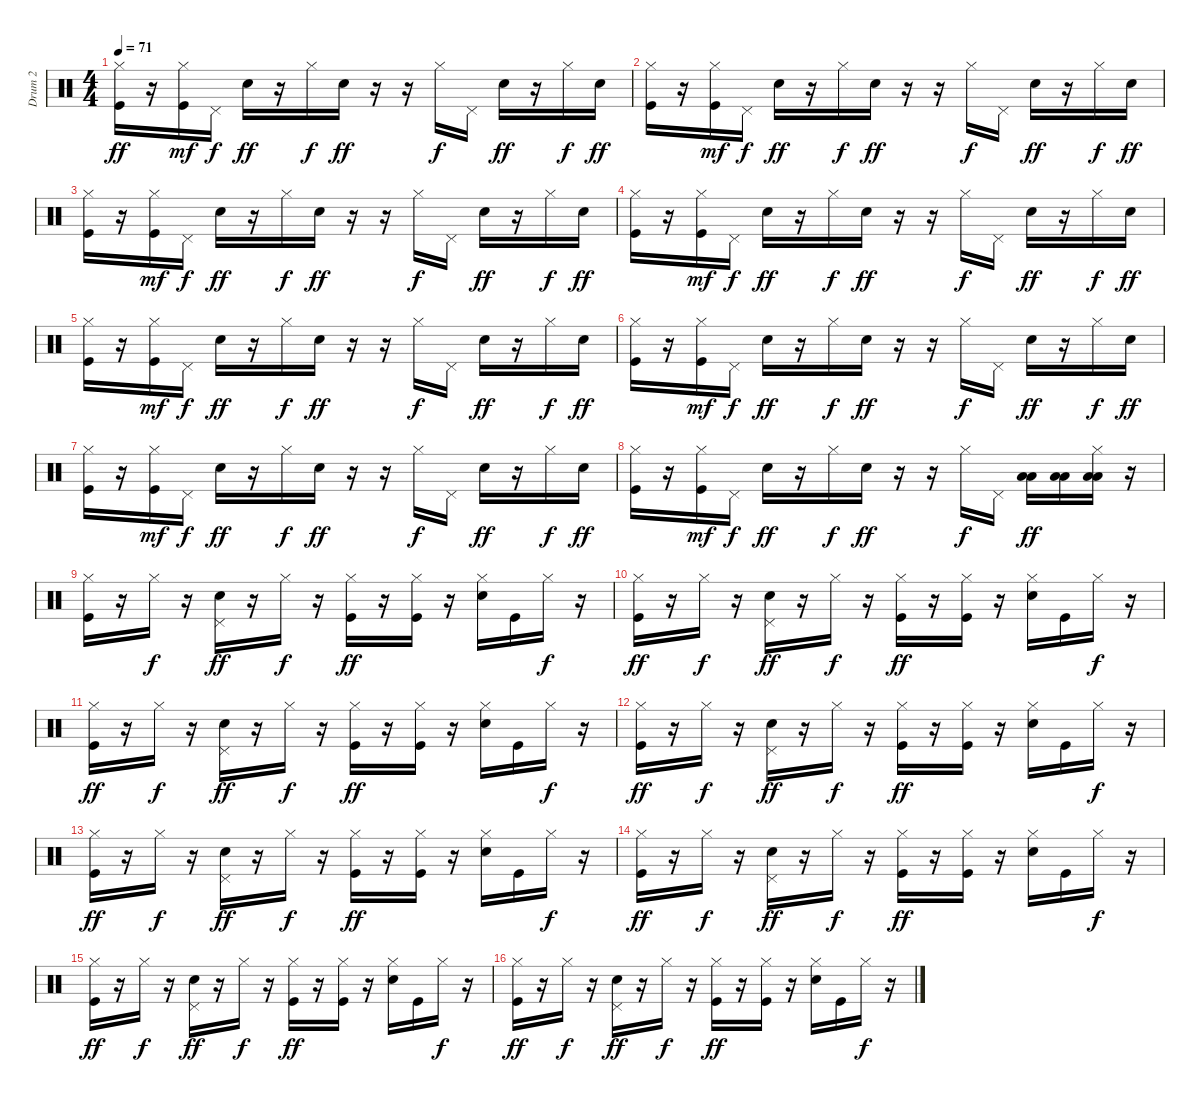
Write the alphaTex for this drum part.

\track ("Drum 2" "Drum 2") {instrument percussion}
\staff {score}
\articulation defaults
\ts (4 4)
\tempo 71
\clef neutral
\ks c
("Hi-Hat (closed)" "Kick (hit)").16{dy ff} r.16 ("Hi-Hat (closed)" "Kick (hit)").16{dy mf} "Pedal Hi-Hat (hit)".16{dy f} "Snare (hit) 2".16{dy ff} r.16 "Hi-Hat (closed)".16{dy f} "Snare (hit) 2".16{dy ff} r.16 r.16 "Hi-Hat (closed)".16{dy f} "Pedal Hi-Hat (hit)".16 "Snare (hit) 2".16{dy ff} r.16 "Hi-Hat (closed)".16{dy f} "Snare (hit) 2".16{dy ff} |
("Hi-Hat (closed)" "Kick (hit)").16 r.16 ("Hi-Hat (closed)" "Kick (hit)").16{dy mf} "Pedal Hi-Hat (hit)".16{dy f} "Snare (hit) 2".16{dy ff} r.16 "Hi-Hat (closed)".16{dy f} "Snare (hit) 2".16{dy ff} r.16 r.16 "Hi-Hat (closed)".16{dy f} "Pedal Hi-Hat (hit)".16 "Snare (hit) 2".16{dy ff} r.16 "Hi-Hat (closed)".16{dy f} "Snare (hit) 2".16{dy ff} |
("Hi-Hat (closed)" "Kick (hit)").16 r.16 ("Hi-Hat (closed)" "Kick (hit)").16{dy mf} "Pedal Hi-Hat (hit)".16{dy f} "Snare (hit) 2".16{dy ff} r.16 "Hi-Hat (closed)".16{dy f} "Snare (hit) 2".16{dy ff} r.16 r.16 "Hi-Hat (closed)".16{dy f} "Pedal Hi-Hat (hit)".16 "Snare (hit) 2".16{dy ff} r.16 "Hi-Hat (closed)".16{dy f} "Snare (hit) 2".16{dy ff} |
("Hi-Hat (closed)" "Kick (hit)").16 r.16 ("Hi-Hat (closed)" "Kick (hit)").16{dy mf} "Pedal Hi-Hat (hit)".16{dy f} "Snare (hit) 2".16{dy ff} r.16 "Hi-Hat (closed)".16{dy f} "Snare (hit) 2".16{dy ff} r.16 r.16 "Hi-Hat (closed)".16{dy f} "Pedal Hi-Hat (hit)".16 "Snare (hit) 2".16{dy ff} r.16 "Hi-Hat (closed)".16{dy f} "Snare (hit) 2".16{dy ff} |
("Hi-Hat (closed)" "Kick (hit)").16 r.16 ("Hi-Hat (closed)" "Kick (hit)").16{dy mf} "Pedal Hi-Hat (hit)".16{dy f} "Snare (hit) 2".16{dy ff} r.16 "Hi-Hat (closed)".16{dy f} "Snare (hit) 2".16{dy ff} r.16 r.16 "Hi-Hat (closed)".16{dy f} "Pedal Hi-Hat (hit)".16 "Snare (hit) 2".16{dy ff} r.16 "Hi-Hat (closed)".16{dy f} "Snare (hit) 2".16{dy ff} |
("Hi-Hat (closed)" "Kick (hit)").16 r.16 ("Hi-Hat (closed)" "Kick (hit)").16{dy mf} "Pedal Hi-Hat (hit)".16{dy f} "Snare (hit) 2".16{dy ff} r.16 "Hi-Hat (closed)".16{dy f} "Snare (hit) 2".16{dy ff} r.16 r.16 "Hi-Hat (closed)".16{dy f} "Pedal Hi-Hat (hit)".16 "Snare (hit) 2".16{dy ff} r.16 "Hi-Hat (closed)".16{dy f} "Snare (hit) 2".16{dy ff} |
("Hi-Hat (closed)" "Kick (hit)").16 r.16 ("Hi-Hat (closed)" "Kick (hit)").16{dy mf} "Pedal Hi-Hat (hit)".16{dy f} "Snare (hit) 2".16{dy ff} r.16 "Hi-Hat (closed)".16{dy f} "Snare (hit) 2".16{dy ff} r.16 r.16 "Hi-Hat (closed)".16{dy f} "Pedal Hi-Hat (hit)".16 "Snare (hit) 2".16{dy ff} r.16 "Hi-Hat (closed)".16{dy f} "Snare (hit) 2".16{dy ff} |
("Hi-Hat (closed)" "Kick (hit)").16 r.16 ("Hi-Hat (closed)" "Kick (hit)").16{dy mf} "Pedal Hi-Hat (hit)".16{dy f} "Snare (hit) 2".16{dy ff} r.16 "Hi-Hat (closed)".16{dy f} "Snare (hit) 2".16{dy ff} r.16 r.16 "Hi-Hat (closed)".16{dy f} "Pedal Hi-Hat (hit)".16 ("Low Tom (hit)" "Low Tom (hit)").16{dy ff} ("Low Tom (hit)" "Low Tom (hit)").16 ("Hi-Hat (closed)" "Low Tom (hit)" "Low Tom (hit)").16 r.16 |
("Hi-Hat (closed)" "Kick (hit)").16 r.16 "Hi-Hat (closed)".16{dy f} r.16 ("Pedal Hi-Hat (hit)" "Snare (hit) 2").16{dy ff} r.16 "Hi-Hat (closed)".16{dy f} r.16 ("Hi-Hat (closed)" "Kick (hit)").16{dy ff} r.16 ("Hi-Hat (closed)" "Kick (hit)").16 r.16 ("Hi-Hat (closed)" "Snare (hit) 2").16 "Kick (hit)".16 "Hi-Hat (closed)".16{dy f} r.16 |
("Hi-Hat (closed)" "Kick (hit)").16{dy ff} r.16 "Hi-Hat (closed)".16{dy f} r.16 ("Pedal Hi-Hat (hit)" "Snare (hit) 2").16{dy ff} r.16 "Hi-Hat (closed)".16{dy f} r.16 ("Hi-Hat (closed)" "Kick (hit)").16{dy ff} r.16 ("Hi-Hat (closed)" "Kick (hit)").16 r.16 ("Hi-Hat (closed)" "Snare (hit) 2").16 "Kick (hit)".16 "Hi-Hat (closed)".16{dy f} r.16 |
("Hi-Hat (closed)" "Kick (hit)").16{dy ff} r.16 "Hi-Hat (closed)".16{dy f} r.16 ("Pedal Hi-Hat (hit)" "Snare (hit) 2").16{dy ff} r.16 "Hi-Hat (closed)".16{dy f} r.16 ("Hi-Hat (closed)" "Kick (hit)").16{dy ff} r.16 ("Hi-Hat (closed)" "Kick (hit)").16 r.16 ("Hi-Hat (closed)" "Snare (hit) 2").16 "Kick (hit)".16 "Hi-Hat (closed)".16{dy f} r.16 |
("Hi-Hat (closed)" "Kick (hit)").16{dy ff} r.16 "Hi-Hat (closed)".16{dy f} r.16 ("Pedal Hi-Hat (hit)" "Snare (hit) 2").16{dy ff} r.16 "Hi-Hat (closed)".16{dy f} r.16 ("Hi-Hat (closed)" "Kick (hit)").16{dy ff} r.16 ("Hi-Hat (closed)" "Kick (hit)").16 r.16 ("Hi-Hat (closed)" "Snare (hit) 2").16 "Kick (hit)".16 "Hi-Hat (closed)".16{dy f} r.16 |
("Hi-Hat (closed)" "Kick (hit)").16{dy ff} r.16 "Hi-Hat (closed)".16{dy f} r.16 ("Pedal Hi-Hat (hit)" "Snare (hit) 2").16{dy ff} r.16 "Hi-Hat (closed)".16{dy f} r.16 ("Hi-Hat (closed)" "Kick (hit)").16{dy ff} r.16 ("Hi-Hat (closed)" "Kick (hit)").16 r.16 ("Hi-Hat (closed)" "Snare (hit) 2").16 "Kick (hit)".16 "Hi-Hat (closed)".16{dy f} r.16 |
("Hi-Hat (closed)" "Kick (hit)").16{dy ff} r.16 "Hi-Hat (closed)".16{dy f} r.16 ("Pedal Hi-Hat (hit)" "Snare (hit) 2").16{dy ff} r.16 "Hi-Hat (closed)".16{dy f} r.16 ("Hi-Hat (closed)" "Kick (hit)").16{dy ff} r.16 ("Hi-Hat (closed)" "Kick (hit)").16 r.16 ("Hi-Hat (closed)" "Snare (hit) 2").16 "Kick (hit)".16 "Hi-Hat (closed)".16{dy f} r.16 |
("Hi-Hat (closed)" "Kick (hit)").16{dy ff} r.16 "Hi-Hat (closed)".16{dy f} r.16 ("Pedal Hi-Hat (hit)" "Snare (hit) 2").16{dy ff} r.16 "Hi-Hat (closed)".16{dy f} r.16 ("Hi-Hat (closed)" "Kick (hit)").16{dy ff} r.16 ("Hi-Hat (closed)" "Kick (hit)").16 r.16 ("Hi-Hat (closed)" "Snare (hit) 2").16 "Kick (hit)".16 "Hi-Hat (closed)".16{dy f} r.16 |
("Hi-Hat (closed)" "Kick (hit)").16{dy ff} r.16 "Hi-Hat (closed)".16{dy f} r.16 ("Pedal Hi-Hat (hit)" "Snare (hit) 2").16{dy ff} r.16 "Hi-Hat (closed)".16{dy f} r.16 ("Hi-Hat (closed)" "Kick (hit)").16{dy ff} r.16 ("Hi-Hat (closed)" "Kick (hit)").16 r.16 ("Hi-Hat (closed)" "Snare (hit) 2").16 "Kick (hit)".16 "Hi-Hat (closed)".16{dy f} r.16
